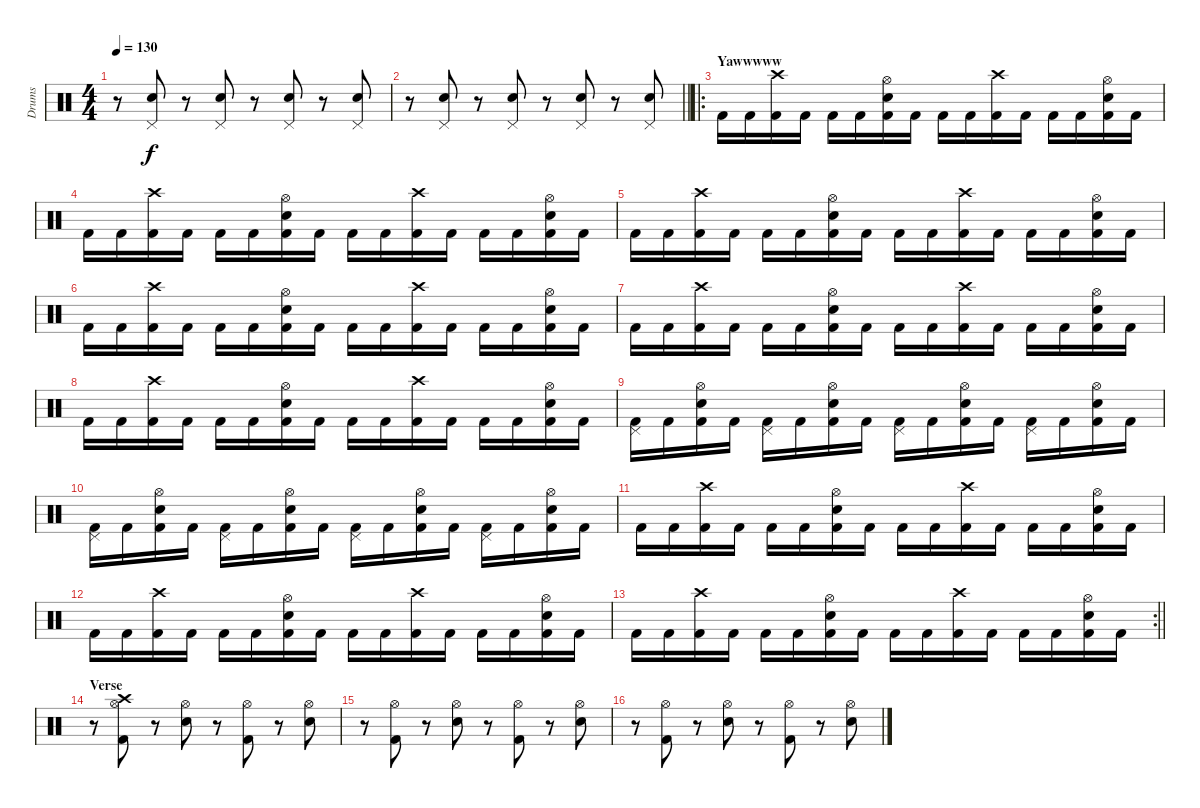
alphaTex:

\track ("Drums" "Drums") {instrument percussion}
\staff {score}
\articulation defaults
\ts (4 4)
\tempo 130
\clef neutral
\ks c
r.8{dy f} ("Snare (hit) 2" "Pedal Hi-Hat (hit)").8 r.8 ("Snare (hit) 2" "Pedal Hi-Hat (hit)").8 r.8 ("Snare (hit) 2" "Pedal Hi-Hat (hit)").8 r.8 ("Snare (hit) 2" "Pedal Hi-Hat (hit)").8 |
\barLineRight lightlight
r.8 ("Snare (hit) 2" "Pedal Hi-Hat (hit)").8 r.8 ("Snare (hit) 2" "Pedal Hi-Hat (hit)").8 r.8 ("Snare (hit) 2" "Pedal Hi-Hat (hit)").8 r.8 ("Snare (hit) 2" "Pedal Hi-Hat (hit)").8 |
\ro
\section ("" "Yawwwww")
"Kick (hit) 2".16 "Kick (hit) 2".16 ("Crash high (hit)" "Kick (hit) 2").16 "Kick (hit) 2".16 "Kick (hit) 2".16 "Kick (hit) 2".16 ("Electric Snare (hit)" "Hi-Hat (open)" "Kick (hit) 2").16 "Kick (hit) 2".16 "Kick (hit) 2".16 "Kick (hit) 2".16 ("Crash high (hit)" "Kick (hit) 2").16 "Kick (hit) 2".16 "Kick (hit) 2".16 "Kick (hit) 2".16 ("Electric Snare (hit)" "Hi-Hat (open)" "Kick (hit) 2").16 "Kick (hit) 2".16 |
"Kick (hit) 2".16 "Kick (hit) 2".16 ("Crash high (hit)" "Kick (hit) 2").16 "Kick (hit) 2".16 "Kick (hit) 2".16 "Kick (hit) 2".16 ("Electric Snare (hit)" "Hi-Hat (open)" "Kick (hit) 2").16 "Kick (hit) 2".16 "Kick (hit) 2".16 "Kick (hit) 2".16 ("Crash high (hit)" "Kick (hit) 2").16 "Kick (hit) 2".16 "Kick (hit) 2".16 "Kick (hit) 2".16 ("Electric Snare (hit)" "Hi-Hat (open)" "Kick (hit) 2").16 "Kick (hit) 2".16 |
"Kick (hit) 2".16 "Kick (hit) 2".16 ("Crash high (hit)" "Kick (hit) 2").16 "Kick (hit) 2".16 "Kick (hit) 2".16 "Kick (hit) 2".16 ("Electric Snare (hit)" "Hi-Hat (open)" "Kick (hit) 2").16 "Kick (hit) 2".16 "Kick (hit) 2".16 "Kick (hit) 2".16 ("Crash high (hit)" "Kick (hit) 2").16 "Kick (hit) 2".16 "Kick (hit) 2".16 "Kick (hit) 2".16 ("Electric Snare (hit)" "Hi-Hat (open)" "Kick (hit) 2").16 "Kick (hit) 2".16 |
"Kick (hit) 2".16 "Kick (hit) 2".16 ("Crash high (hit)" "Kick (hit) 2").16 "Kick (hit) 2".16 "Kick (hit) 2".16 "Kick (hit) 2".16 ("Electric Snare (hit)" "Hi-Hat (open)" "Kick (hit) 2").16 "Kick (hit) 2".16 "Kick (hit) 2".16 "Kick (hit) 2".16 ("Crash high (hit)" "Kick (hit) 2").16 "Kick (hit) 2".16 "Kick (hit) 2".16 "Kick (hit) 2".16 ("Electric Snare (hit)" "Hi-Hat (open)" "Kick (hit) 2").16 "Kick (hit) 2".16 |
"Kick (hit) 2".16 "Kick (hit) 2".16 ("Crash high (hit)" "Kick (hit) 2").16 "Kick (hit) 2".16 "Kick (hit) 2".16 "Kick (hit) 2".16 ("Electric Snare (hit)" "Hi-Hat (open)" "Kick (hit) 2").16 "Kick (hit) 2".16 "Kick (hit) 2".16 "Kick (hit) 2".16 ("Crash high (hit)" "Kick (hit) 2").16 "Kick (hit) 2".16 "Kick (hit) 2".16 "Kick (hit) 2".16 ("Electric Snare (hit)" "Hi-Hat (open)" "Kick (hit) 2").16 "Kick (hit) 2".16 |
"Kick (hit) 2".16 "Kick (hit) 2".16 ("Crash high (hit)" "Kick (hit) 2").16 "Kick (hit) 2".16 "Kick (hit) 2".16 "Kick (hit) 2".16 ("Electric Snare (hit)" "Hi-Hat (open)" "Kick (hit) 2").16 "Kick (hit) 2".16 "Kick (hit) 2".16 "Kick (hit) 2".16 ("Crash high (hit)" "Kick (hit) 2").16 "Kick (hit) 2".16 "Kick (hit) 2".16 "Kick (hit) 2".16 ("Electric Snare (hit)" "Hi-Hat (open)" "Kick (hit) 2").16 "Kick (hit) 2".16 |
("Pedal Hi-Hat (hit)" "Kick (hit) 2").16 "Kick (hit) 2".16 ("Electric Snare (hit)" "Hi-Hat (open)" "Kick (hit) 2").16 "Kick (hit) 2".16 ("Pedal Hi-Hat (hit)" "Kick (hit) 2").16 "Kick (hit) 2".16 ("Electric Snare (hit)" "Hi-Hat (open)" "Kick (hit) 2").16 "Kick (hit) 2".16 ("Pedal Hi-Hat (hit)" "Kick (hit) 2").16 "Kick (hit) 2".16 ("Electric Snare (hit)" "Hi-Hat (open)" "Kick (hit) 2").16 "Kick (hit) 2".16 ("Pedal Hi-Hat (hit)" "Kick (hit) 2").16 "Kick (hit) 2".16 ("Electric Snare (hit)" "Hi-Hat (open)" "Kick (hit) 2").16 "Kick (hit) 2".16 |
("Pedal Hi-Hat (hit)" "Kick (hit) 2").16 "Kick (hit) 2".16 ("Electric Snare (hit)" "Hi-Hat (open)" "Kick (hit) 2").16 "Kick (hit) 2".16 ("Pedal Hi-Hat (hit)" "Kick (hit) 2").16 "Kick (hit) 2".16 ("Electric Snare (hit)" "Hi-Hat (open)" "Kick (hit) 2").16 "Kick (hit) 2".16 ("Pedal Hi-Hat (hit)" "Kick (hit) 2").16 "Kick (hit) 2".16 ("Electric Snare (hit)" "Hi-Hat (open)" "Kick (hit) 2").16 "Kick (hit) 2".16 ("Pedal Hi-Hat (hit)" "Kick (hit) 2").16 "Kick (hit) 2".16 ("Electric Snare (hit)" "Hi-Hat (open)" "Kick (hit) 2").16 "Kick (hit) 2".16 |
"Kick (hit) 2".16 "Kick (hit) 2".16 ("Crash high (hit)" "Kick (hit) 2").16 "Kick (hit) 2".16 "Kick (hit) 2".16 "Kick (hit) 2".16 ("Electric Snare (hit)" "Hi-Hat (open)" "Kick (hit) 2").16 "Kick (hit) 2".16 "Kick (hit) 2".16 "Kick (hit) 2".16 ("Crash high (hit)" "Kick (hit) 2").16 "Kick (hit) 2".16 "Kick (hit) 2".16 "Kick (hit) 2".16 ("Electric Snare (hit)" "Hi-Hat (open)" "Kick (hit) 2").16 "Kick (hit) 2".16 |
"Kick (hit) 2".16 "Kick (hit) 2".16 ("Crash high (hit)" "Kick (hit) 2").16 "Kick (hit) 2".16 "Kick (hit) 2".16 "Kick (hit) 2".16 ("Electric Snare (hit)" "Hi-Hat (open)" "Kick (hit) 2").16 "Kick (hit) 2".16 "Kick (hit) 2".16 "Kick (hit) 2".16 ("Crash high (hit)" "Kick (hit) 2").16 "Kick (hit) 2".16 "Kick (hit) 2".16 "Kick (hit) 2".16 ("Electric Snare (hit)" "Hi-Hat (open)" "Kick (hit) 2").16 "Kick (hit) 2".16 |
\rc 2
\barLineRight lightlight "Kick (hit) 2".16 "Kick (hit) 2".16
("Crash high (hit)" "Kick (hit) 2").16 "Kick (hit) 2".16 "Kick (hit) 2".16 "Kick (hit) 2".16 ("Electric Snare (hit)" "Hi-Hat (open)" "Kick (hit) 2").16 "Kick (hit) 2".16 "Kick (hit) 2".16 "Kick (hit) 2".16 ("Crash high (hit)" "Kick (hit) 2").16 "Kick (hit) 2".16 "Kick (hit) 2".16 "Kick (hit) 2".16 ("Electric Snare (hit)" "Hi-Hat (open)" "Kick (hit) 2").16 "Kick (hit) 2".16 |
\section ("" "Verse")
r.8 ("Kick (hit) 2" "Hi-Hat (open)" "Crash high (hit)").8 r.8 ("Snare (hit) 2" "Hi-Hat (open)").8 r.8 ("Kick (hit) 2" "Hi-Hat (open)").8 r.8 ("Snare (hit) 2" "Hi-Hat (open)").8 |
r.8 ("Kick (hit) 2" "Hi-Hat (open)").8 r.8 ("Snare (hit) 2" "Hi-Hat (open)").8 r.8 ("Kick (hit) 2" "Hi-Hat (open)").8 r.8 ("Snare (hit) 2" "Hi-Hat (open)").8 |
r.8 ("Kick (hit) 2" "Hi-Hat (open)").8 r.8 ("Snare (hit) 2" "Hi-Hat (open)").8 r.8 ("Kick (hit) 2" "Hi-Hat (open)").8 r.8 ("Snare (hit) 2" "Hi-Hat (open)").8
